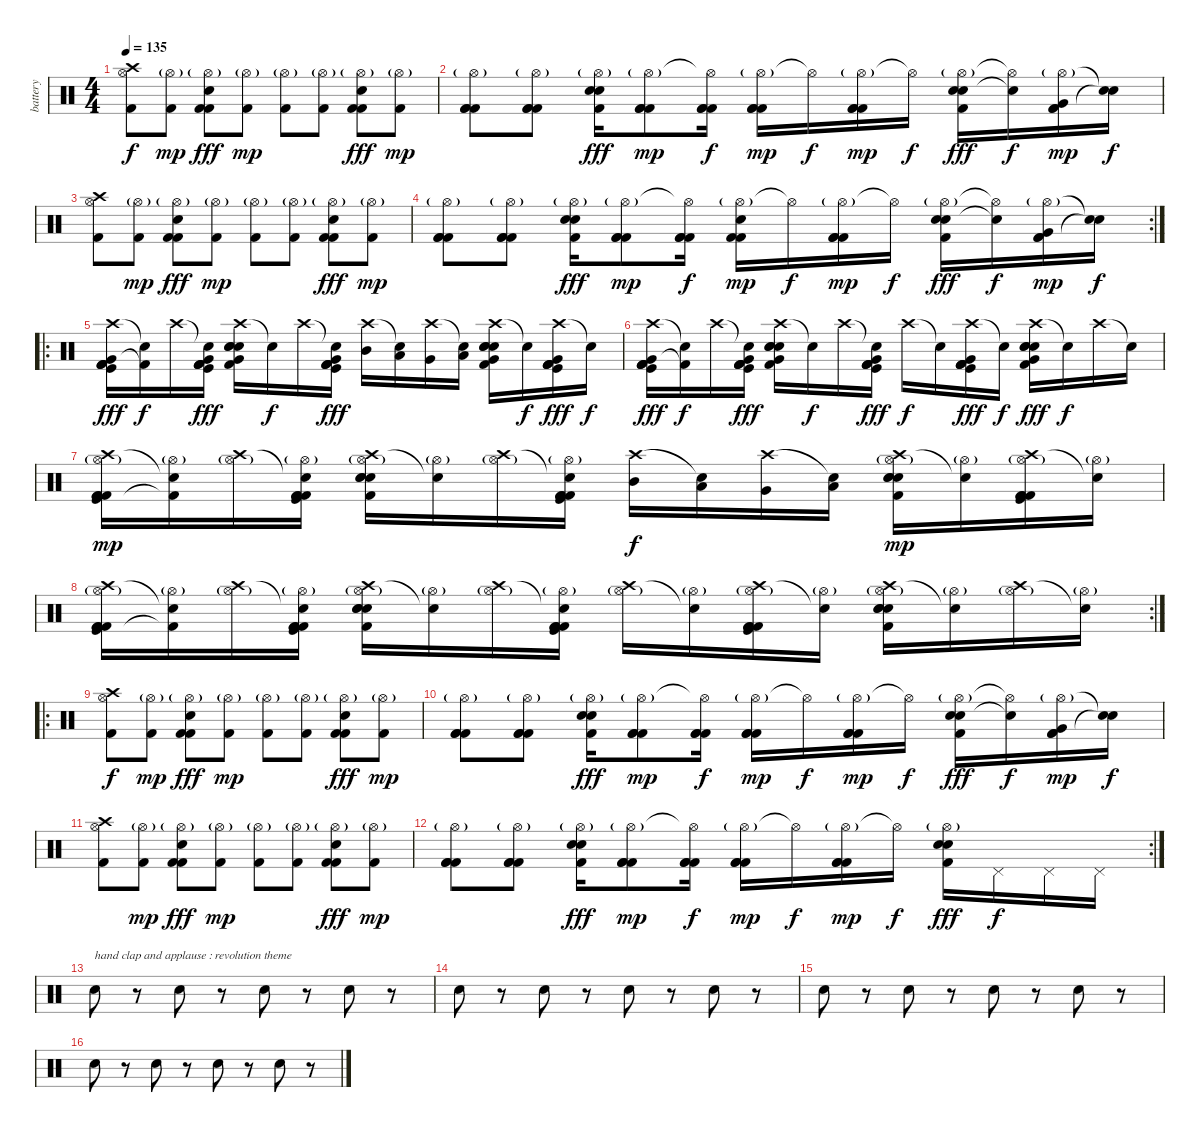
\track ("battery" "battery") {instrument percussion}
\staff {score}
\articulation defaults
\ts (4 4)
\tempo 135
\clef neutral
\ks c
("Hi-Hat (open)" "Crash high (hit)" "Kick (hit) 2").8{dy f} ("Hi-Hat (open)"{g} "Kick (hit) 2").8{dy mp} ("Hi-Hat (open)"{g} "Kick (hit) 2" "Electric Snare (hit)" "Kick (hit) 2").8{dy fff} ("Hi-Hat (open)"{g} "Kick (hit) 2").8{dy mp} ("Hi-Hat (open)"{g} "Kick (hit) 2").8 ("Hi-Hat (open)"{g} "Kick (hit) 2").8 ("Hi-Hat (open)"{g} "Kick (hit) 2" "Electric Snare (hit)" "Kick (hit) 2").8{dy fff} ("Hi-Hat (open)"{g} "Kick (hit) 2").8{dy mp} |
("Hi-Hat (open)"{g} "Kick (hit) 2" "Kick (hit) 2" "Kick (hit) 2").8 ("Hi-Hat (open)"{g} "Kick (hit) 2" "Kick (hit) 2" "Kick (hit) 2").8 ("Hi-Hat (open)"{g} "Electric Snare (hit)" "Kick (hit) 2" "Electric Snare (hit)").16{dy fff} ("Hi-Hat (open)"{g} "Kick (hit) 2" "Kick (hit) 2" "Kick (hit) 2").8{dy mp} ("Hi-Hat (open)"{t} "Kick (hit) 2" "Kick (hit) 2" "Kick (hit) 2").16{dy f} ("Hi-Hat (open)"{g} "Kick (hit) 2" "Kick (hit) 2" "Kick (hit) 2").16{dy mp} "Hi-Hat (open)"{t}.16{dy f} ("Hi-Hat (open)"{g} "Kick (hit) 2" "Kick (hit) 2" "Kick (hit) 2").16{dy mp} "Hi-Hat (open)"{t}.16{dy f} ("Hi-Hat (open)"{g} "Electric Snare (hit)" "Kick (hit) 2" "Electric Snare (hit)").16{dy fff} ("Hi-Hat (open)"{t} "Snare (hit)"{t}).16{dy f} ("Hi-Hat (open)"{g} "Kick (hit) 2" "Very Low Tom (hit)" "Kick (hit) 2").16{dy mp} ("Snare (hit)"{t} "Snare (hit)"{t}).16{dy f} |
("Hi-Hat (open)" "Crash high (hit)" "Kick (hit) 2").8 ("Hi-Hat (open)"{g} "Kick (hit) 2").8{dy mp} ("Hi-Hat (open)"{g} "Kick (hit) 2" "Electric Snare (hit)" "Kick (hit) 2").8{dy fff} ("Hi-Hat (open)"{g} "Kick (hit) 2").8{dy mp} ("Hi-Hat (open)"{g} "Kick (hit) 2").8 ("Hi-Hat (open)"{g} "Kick (hit) 2").8 ("Hi-Hat (open)"{g} "Kick (hit) 2" "Electric Snare (hit)" "Kick (hit) 2").8{dy fff} ("Hi-Hat (open)"{g} "Kick (hit) 2").8{dy mp} |
\rc 2
("Hi-Hat (open)"{g} "Kick (hit) 2" "Kick (hit) 2" "Kick (hit) 2").8 ("Hi-Hat (open)"{g} "Kick (hit) 2" "Kick (hit) 2" "Kick (hit) 2").8 ("Hi-Hat (open)"{g} "Electric Snare (hit)" "Kick (hit) 2" "Electric Snare (hit)").16{dy fff} ("Hi-Hat (open)"{g} "Kick (hit) 2" "Kick (hit) 2" "Kick (hit) 2").8{dy mp} ("Hi-Hat (open)"{t} "Kick (hit) 2" "Kick (hit) 2" "Kick (hit) 2").16{dy f} ("Hi-Hat (open)"{g} "Snare (hit)" "Kick (hit) 2" "Kick (hit) 2").16{dy mp} "Hi-Hat (open)"{t}.16{dy f} ("Hi-Hat (open)"{g} "Kick (hit) 2" "Kick (hit) 2" "Kick (hit) 2").16{dy mp} "Hi-Hat (open)"{t}.16{dy f} ("Hi-Hat (open)"{g} "Electric Snare (hit)" "Kick (hit) 2" "Electric Snare (hit)").16{dy fff} ("Hi-Hat (open)"{t} "Snare (hit)"{t}).16{dy f} ("Hi-Hat (open)"{g} "Kick (hit) 2" "Very Low Tom (hit)" "Kick (hit) 2").16{dy mp} ("Snare (hit)"{t} "Snare (hit)"{t}).16{dy f} |
\ro
("Crash high (hit)" "Very Low Tom (hit)" "Kick (hit)" "Kick (hit) 2" "Kick (hit) 2" "Kick (hit) 2").16{dy fff} ("Snare (hit)"{t} "Kick (hit) 2"{t}).16{dy f} "Crash high (hit)".16 ("Snare (hit)"{t} "Very Low Tom (hit)" "Kick (hit)" "Kick (hit) 2" "Kick (hit) 2" "Kick (hit) 2").16{dy fff} ("Crash high (hit)" "Very Low Tom (hit)" "Kick (hit) 2" "Electric Snare (hit)" "Electric Snare (hit)" "Electric Snare (hit)").16 "Snare (hit)"{t}.16{dy f} "Crash high (hit)".16 ("Snare (hit)"{t} "Very Low Tom (hit)" "Kick (hit)" "Kick (hit) 2" "Kick (hit) 2" "Kick (hit) 2").16{dy fff} ("Crash high (hit)" "Mid Tom (hit)").16 ("Snare (hit)"{t} "Low Tom (hit)").16 ("Crash high (hit)" "Very Low Tom (hit)").16 ("Snare (hit)"{t} "Low Floor Tom (hit)").16 ("Crash high (hit)" "Very Low Tom (hit)" "Kick (hit) 2" "Electric Snare (hit)" "Electric Snare (hit)" "Electric Snare (hit)").16 "Snare (hit)"{t}.16{dy f} ("Crash high (hit)" "Very Low Tom (hit)" "Kick (hit)" "Kick (hit) 2" "Kick (hit) 2" "Kick (hit) 2").16{dy fff} "Snare (hit)"{t}.16{dy f} |
("Crash high (hit)" "Very Low Tom (hit)" "Kick (hit)" "Kick (hit) 2" "Kick (hit) 2" "Kick (hit) 2").16{dy fff} ("Snare (hit)"{t} "Kick (hit) 2"{t}).16{dy f} "Crash high (hit)".16 ("Snare (hit)"{t} "Very Low Tom (hit)" "Kick (hit)" "Kick (hit) 2" "Kick (hit) 2" "Kick (hit) 2").16{dy fff} ("Crash high (hit)" "Very Low Tom (hit)" "Kick (hit) 2" "Electric Snare (hit)" "Electric Snare (hit)" "Electric Snare (hit)").16 "Snare (hit)"{t}.16{dy f} "Crash high (hit)".16 ("Snare (hit)"{t} "Very Low Tom (hit)" "Kick (hit)" "Kick (hit) 2" "Kick (hit) 2" "Kick (hit) 2").16{dy fff} "Crash high (hit)".16{dy f} "Snare (hit)"{t}.16 ("Crash high (hit)" "Very Low Tom (hit)" "Kick (hit)" "Kick (hit) 2" "Kick (hit) 2" "Kick (hit) 2").16{dy fff} "Snare (hit)"{t}.16{dy f} ("Crash high (hit)" "Very Low Tom (hit)" "Kick (hit) 2" "Electric Snare (hit)" "Electric Snare (hit)" "Electric Snare (hit)").16{dy fff} "Snare (hit)"{t}.16{dy f} "Crash high (hit)".16 "Snare (hit)"{t}.16 |
("Crash high (hit)" "Hi-Hat (open)"{g} "Kick (hit)" "Kick (hit) 2" "Kick (hit) 2" "Kick (hit) 2").16{dy mp} ("Snare (hit)"{t} "Hi-Hat (open)"{g} "Kick (hit) 2"{t}).16 ("Crash high (hit)" "Hi-Hat (open)"{g}).16 ("Snare (hit)"{t} "Hi-Hat (open)"{g} "Kick (hit)" "Kick (hit) 2" "Kick (hit) 2" "Kick (hit) 2").16 ("Crash high (hit)" "Hi-Hat (open)"{g} "Kick (hit) 2" "Electric Snare (hit)" "Electric Snare (hit)" "Electric Snare (hit)").16 ("Snare (hit)"{t} "Hi-Hat (open)"{g}).16 ("Crash high (hit)" "Hi-Hat (open)"{g}).16 ("Snare (hit)"{t} "Hi-Hat (open)"{g} "Kick (hit)" "Kick (hit) 2" "Kick (hit) 2" "Kick (hit) 2").16 ("Crash high (hit)" "Mid Tom (hit)").16{dy f} ("Snare (hit)"{t} "Low Tom (hit)").16 ("Crash high (hit)" "Very Low Tom (hit)").16 ("Snare (hit)"{t} "Low Floor Tom (hit)").16 ("Crash high (hit)" "Hi-Hat (open)"{g} "Kick (hit) 2" "Electric Snare (hit)" "Electric Snare (hit)" "Electric Snare (hit)").16{dy mp} ("Snare (hit)"{t} "Hi-Hat (open)"{g}).16 ("Crash high (hit)" "Hi-Hat (open)"{g} "Kick (hit)" "Kick (hit) 2" "Kick (hit) 2" "Kick (hit) 2").16 ("Snare (hit)"{t} "Hi-Hat (open)"{g}).16 |
\rc 2
("Crash high (hit)" "Hi-Hat (open)"{g} "Kick (hit)" "Kick (hit) 2" "Kick (hit) 2" "Kick (hit) 2").16 ("Snare (hit)"{t} "Hi-Hat (open)"{g} "Kick (hit) 2"{t}).16 ("Crash high (hit)" "Hi-Hat (open)"{g}).16 ("Snare (hit)"{t} "Hi-Hat (open)"{g} "Kick (hit)" "Kick (hit) 2" "Kick (hit) 2" "Kick (hit) 2").16 ("Crash high (hit)" "Hi-Hat (open)"{g} "Kick (hit) 2" "Electric Snare (hit)" "Electric Snare (hit)" "Electric Snare (hit)").16 ("Snare (hit)"{t} "Hi-Hat (open)"{g}).16 ("Crash high (hit)" "Hi-Hat (open)"{g}).16 ("Snare (hit)"{t} "Hi-Hat (open)"{g} "Kick (hit)" "Kick (hit) 2" "Kick (hit) 2" "Kick (hit) 2").16 ("Crash high (hit)" "Hi-Hat (open)"{g}).16 ("Snare (hit)"{t} "Hi-Hat (open)"{g}).16 ("Crash high (hit)" "Hi-Hat (open)"{g} "Kick (hit)" "Kick (hit) 2" "Kick (hit) 2" "Kick (hit) 2").16 ("Snare (hit)"{t} "Hi-Hat (open)"{g}).16 ("Crash high (hit)" "Hi-Hat (open)"{g} "Kick (hit) 2" "Electric Snare (hit)" "Electric Snare (hit)" "Electric Snare (hit)").16 ("Snare (hit)"{t} "Hi-Hat (open)"{g}).16 ("Crash high (hit)" "Hi-Hat (open)"{g}).16 ("Snare (hit)"{t} "Hi-Hat (open)"{g}).16 |
\ro
("Hi-Hat (open)" "Crash high (hit)" "Kick (hit) 2").8{dy f} ("Hi-Hat (open)"{g} "Kick (hit) 2").8{dy mp} ("Hi-Hat (open)"{g} "Kick (hit) 2" "Electric Snare (hit)" "Kick (hit) 2").8{dy fff} ("Hi-Hat (open)"{g} "Kick (hit) 2").8{dy mp} ("Hi-Hat (open)"{g} "Kick (hit) 2").8 ("Hi-Hat (open)"{g} "Kick (hit) 2").8 ("Hi-Hat (open)"{g} "Kick (hit) 2" "Electric Snare (hit)" "Kick (hit) 2").8{dy fff} ("Hi-Hat (open)"{g} "Kick (hit) 2").8{dy mp} |
("Hi-Hat (open)"{g} "Kick (hit) 2" "Kick (hit) 2" "Kick (hit) 2").8 ("Hi-Hat (open)"{g} "Kick (hit) 2" "Kick (hit) 2" "Kick (hit) 2").8 ("Hi-Hat (open)"{g} "Electric Snare (hit)" "Kick (hit) 2" "Electric Snare (hit)").16{dy fff} ("Hi-Hat (open)"{g} "Kick (hit) 2" "Kick (hit) 2" "Kick (hit) 2").8{dy mp} ("Hi-Hat (open)"{t} "Kick (hit) 2" "Kick (hit) 2" "Kick (hit) 2").16{dy f} ("Hi-Hat (open)"{g} "Kick (hit) 2" "Kick (hit) 2" "Kick (hit) 2").16{dy mp} "Hi-Hat (open)"{t}.16{dy f} ("Hi-Hat (open)"{g} "Kick (hit) 2" "Kick (hit) 2" "Kick (hit) 2").16{dy mp} "Hi-Hat (open)"{t}.16{dy f} ("Hi-Hat (open)"{g} "Electric Snare (hit)" "Kick (hit) 2" "Electric Snare (hit)").16{dy fff} ("Hi-Hat (open)"{t} "Snare (hit)"{t}).16{dy f} ("Hi-Hat (open)"{g} "Kick (hit) 2" "Very Low Tom (hit)" "Kick (hit) 2").16{dy mp} ("Snare (hit)"{t} "Snare (hit)"{t}).16{dy f} |
("Hi-Hat (open)" "Crash high (hit)" "Kick (hit) 2").8 ("Hi-Hat (open)"{g} "Kick (hit) 2").8{dy mp} ("Hi-Hat (open)"{g} "Kick (hit) 2" "Electric Snare (hit)" "Kick (hit) 2").8{dy fff} ("Hi-Hat (open)"{g} "Kick (hit) 2").8{dy mp} ("Hi-Hat (open)"{g} "Kick (hit) 2").8 ("Hi-Hat (open)"{g} "Kick (hit) 2").8 ("Hi-Hat (open)"{g} "Kick (hit) 2" "Electric Snare (hit)" "Kick (hit) 2").8{dy fff} ("Hi-Hat (open)"{g} "Kick (hit) 2").8{dy mp} |
\rc 2
("Hi-Hat (open)"{g} "Kick (hit) 2" "Kick (hit) 2" "Kick (hit) 2").8 ("Hi-Hat (open)"{g} "Kick (hit) 2" "Kick (hit) 2" "Kick (hit) 2").8 ("Hi-Hat (open)"{g} "Electric Snare (hit)" "Kick (hit) 2" "Electric Snare (hit)").16{dy fff} ("Hi-Hat (open)"{g} "Kick (hit) 2" "Kick (hit) 2" "Kick (hit) 2").8{dy mp} ("Hi-Hat (open)"{t} "Kick (hit) 2" "Kick (hit) 2" "Kick (hit) 2").16{dy f} ("Hi-Hat (open)"{g} "Kick (hit) 2" "Kick (hit) 2" "Kick (hit) 2").16{dy mp} "Hi-Hat (open)"{t}.16{dy f} ("Hi-Hat (open)"{g} "Kick (hit) 2" "Kick (hit) 2" "Kick (hit) 2").16{dy mp} "Hi-Hat (open)"{t}.16{dy f} ("Hi-Hat (open)"{g} "Electric Snare (hit)" "Kick (hit) 2" "Electric Snare (hit)").16{dy fff} "Pedal Hi-Hat (hit)".16{dy f} "Pedal Hi-Hat (hit)".16 "Pedal Hi-Hat (hit)".16 |
"Hand Clap (hit)".8{txt "hand clap and applause : revolution theme"} r.8 "Hand Clap (hit)".8 r.8 "Hand Clap (hit)".8 r.8 "Hand Clap (hit)".8 r.8 |
"Hand Clap (hit)".8 r.8 "Hand Clap (hit)".8 r.8 "Hand Clap (hit)".8 r.8 "Hand Clap (hit)".8 r.8 |
"Hand Clap (hit)".8 r.8 "Hand Clap (hit)".8 r.8 "Hand Clap (hit)".8 r.8 "Hand Clap (hit)".8 r.8 |
"Hand Clap (hit)".8 r.8 "Hand Clap (hit)".8 r.8 "Hand Clap (hit)".8 r.8 "Hand Clap (hit)".8 r.8
